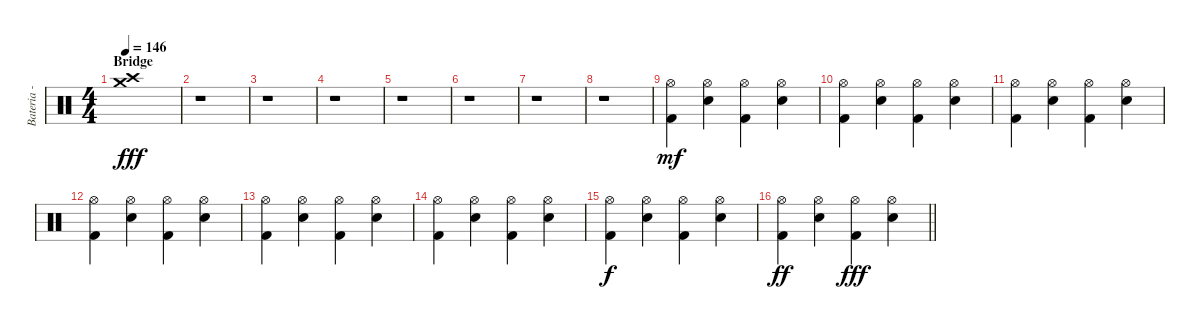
\track ("Bateria - Larzon" "Bateria - ") {instrument percussion}
\staff {score}
\articulation defaults
\ts (4 4)
\section ("" "Bridge")
\tempo 146
\clef neutral
\ks c
("Crash high (hit)" "Crash medium (hit)").1{dy fff} |
r.1 |
r.1 |
r.1 |
r.1 |
r.1 |
r.1 |
r.1 |
("Kick (hit) 2" "Hi-Hat (open)").4{dy mf} ("Electric Snare (hit)" "Hi-Hat (open)").4 ("Kick (hit) 2" "Hi-Hat (open)").4 ("Electric Snare (hit)" "Hi-Hat (open)").4 |
("Kick (hit) 2" "Hi-Hat (open)").4 ("Electric Snare (hit)" "Hi-Hat (open)").4 ("Kick (hit) 2" "Hi-Hat (open)").4 ("Electric Snare (hit)" "Hi-Hat (open)").4 |
("Kick (hit) 2" "Hi-Hat (open)").4 ("Electric Snare (hit)" "Hi-Hat (open)").4 ("Kick (hit) 2" "Hi-Hat (open)").4 ("Electric Snare (hit)" "Hi-Hat (open)").4 |
("Kick (hit) 2" "Hi-Hat (open)").4 ("Electric Snare (hit)" "Hi-Hat (open)").4 ("Kick (hit) 2" "Hi-Hat (open)").4 ("Electric Snare (hit)" "Hi-Hat (open)").4 |
("Kick (hit) 2" "Hi-Hat (open)").4 ("Electric Snare (hit)" "Hi-Hat (open)").4 ("Kick (hit) 2" "Hi-Hat (open)").4 ("Electric Snare (hit)" "Hi-Hat (open)").4 |
("Kick (hit) 2" "Hi-Hat (open)").4 ("Electric Snare (hit)" "Hi-Hat (open)").4 ("Kick (hit) 2" "Hi-Hat (open)").4 ("Electric Snare (hit)" "Hi-Hat (open)").4 |
("Kick (hit) 2" "Hi-Hat (open)").4{dy f} ("Electric Snare (hit)" "Hi-Hat (open)").4 ("Kick (hit) 2" "Hi-Hat (open)").4 ("Electric Snare (hit)" "Hi-Hat (open)").4 |
\barLineRight lightlight
("Kick (hit) 2" "Hi-Hat (open)").4{dy ff} ("Electric Snare (hit)" "Hi-Hat (open)").4 ("Kick (hit) 2" "Hi-Hat (open)").4{dy fff} ("Electric Snare (hit)" "Hi-Hat (open)").4
